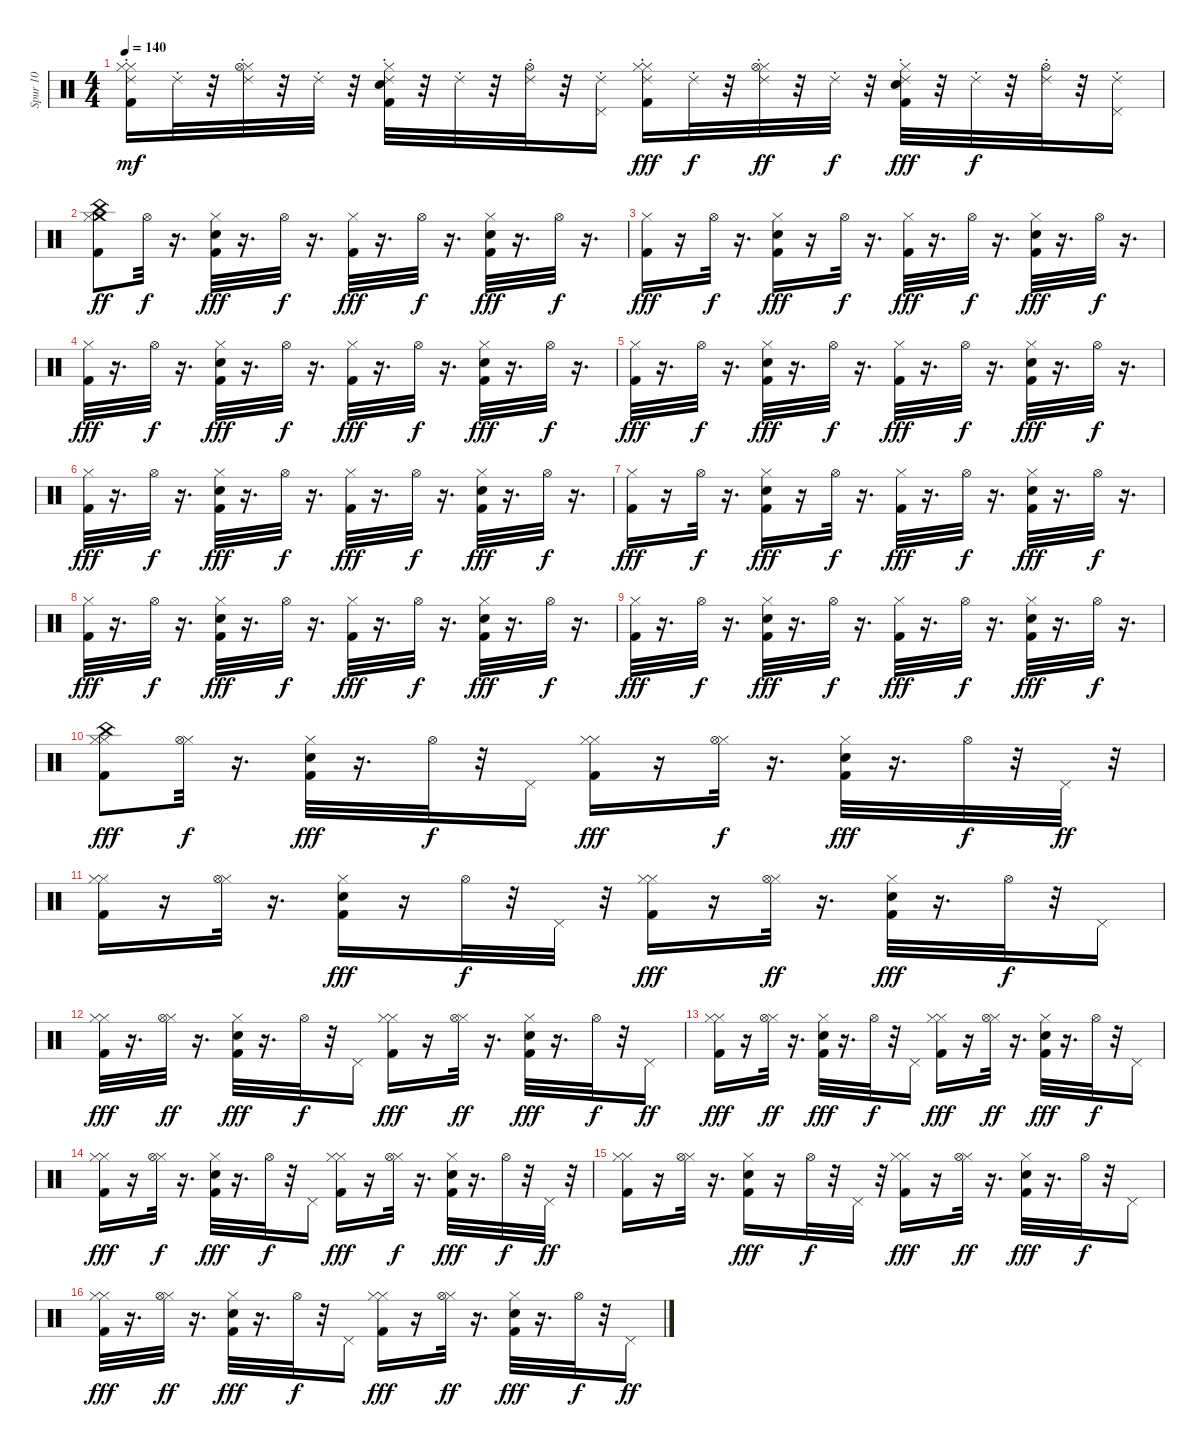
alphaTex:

\track ("Spur 10" "Spur 10") {instrument percussion}
\staff {score}
\articulation defaults
\ts (4 4)
\tempo 140
\clef neutral
\ks c
("Kick (hit) 2" "Hi-Hat (closed)" "Hi-Hat (closed)" "Ride (choke) 2").16{dy mf} "Ride (choke) 2".32 r.32 ("Hi-Hat (closed)" "Hi-Hat (open)" "Ride (choke) 2").32 r.32 "Ride (choke) 2".32 r.32 ("Kick (hit) 2" "Hi-Hat (closed)" "Ride (choke) 2" "Hand Clap (hit)").32 r.32 "Ride (choke) 2".32 r.32 ("Hi-Hat (open)" "Ride (choke) 2").32 r.32 ("Pedal Hi-Hat (hit)" "Ride (choke) 2").16 ("Kick (hit) 2" "Hi-Hat (closed)" "Hi-Hat (closed)" "Ride (choke) 2").16{dy fff} "Ride (choke) 2".32{dy f} r.32 ("Hi-Hat (closed)" "Hi-Hat (open)" "Ride (choke) 2").32{dy ff} r.32 "Ride (choke) 2".32{dy f} r.32 ("Kick (hit) 2" "Hi-Hat (closed)" "Ride (choke) 2" "Hand Clap (hit)").32{dy fff} r.32 "Ride (choke) 2".32{dy f} r.32 ("Hi-Hat (open)" "Ride (choke) 2").32 r.32 ("Pedal Hi-Hat (hit)" "Ride (choke) 2").16 |
("Kick (hit) 2" "China (hit)" "Crash medium (hit)" "Hi-Hat (closed)").8{dy ff} "Hi-Hat (open)".32{dy f} r.16{d} ("Kick (hit) 2" "Hi-Hat (closed)" "Hand Clap (hit)").32{dy fff} r.16{d} "Hi-Hat (open)".32{dy f} r.16{d} ("Kick (hit) 2" "Hi-Hat (closed)").32{dy fff} r.16{d} "Hi-Hat (open)".32{dy f} r.16{d} ("Kick (hit) 2" "Hi-Hat (closed)" "Hand Clap (hit)").32{dy fff} r.16{d} "Hi-Hat (open)".32{dy f} r.16{d} |
("Kick (hit) 2" "Hi-Hat (closed)").16{dy fff} r.16 "Hi-Hat (open)".32{dy f} r.16{d} ("Kick (hit) 2" "Hi-Hat (closed)" "Hand Clap (hit)").16{dy fff} r.16 "Hi-Hat (open)".32{dy f} r.16{d} ("Kick (hit) 2" "Hi-Hat (closed)").32{dy fff} r.16{d} "Hi-Hat (open)".32{dy f} r.16{d} ("Kick (hit) 2" "Hi-Hat (closed)" "Hand Clap (hit)").32{dy fff} r.16{d} "Hi-Hat (open)".32{dy f} r.16{d} |
("Kick (hit) 2" "Hi-Hat (closed)").32{dy fff} r.16{d} "Hi-Hat (open)".32{dy f} r.16{d} ("Kick (hit) 2" "Hi-Hat (closed)" "Hand Clap (hit)").32{dy fff} r.16{d} "Hi-Hat (open)".32{dy f} r.16{d} ("Kick (hit) 2" "Hi-Hat (closed)").32{dy fff} r.16{d} "Hi-Hat (open)".32{dy f} r.16{d} ("Kick (hit) 2" "Hi-Hat (closed)" "Hand Clap (hit)").32{dy fff} r.16{d} "Hi-Hat (open)".32{dy f} r.16{d} |
("Kick (hit) 2" "Hi-Hat (closed)").32{dy fff} r.16{d} "Hi-Hat (open)".32{dy f} r.16{d} ("Kick (hit) 2" "Hi-Hat (closed)" "Hand Clap (hit)").32{dy fff} r.16{d} "Hi-Hat (open)".32{dy f} r.16{d} ("Kick (hit) 2" "Hi-Hat (closed)").32{dy fff} r.16{d} "Hi-Hat (open)".32{dy f} r.16{d} ("Kick (hit) 2" "Hi-Hat (closed)" "Hand Clap (hit)").32{dy fff} r.16{d} "Hi-Hat (open)".32{dy f} r.16{d} |
("Kick (hit) 2" "Hi-Hat (closed)").32{dy fff} r.16{d} "Hi-Hat (open)".32{dy f} r.16{d} ("Kick (hit) 2" "Hi-Hat (closed)" "Hand Clap (hit)").32{dy fff} r.16{d} "Hi-Hat (open)".32{dy f} r.16{d} ("Kick (hit) 2" "Hi-Hat (closed)").32{dy fff} r.16{d} "Hi-Hat (open)".32{dy f} r.16{d} ("Kick (hit) 2" "Hi-Hat (closed)" "Hand Clap (hit)").32{dy fff} r.16{d} "Hi-Hat (open)".32{dy f} r.16{d} |
("Kick (hit) 2" "Hi-Hat (closed)").16{dy fff} r.16 "Hi-Hat (open)".32{dy f} r.16{d} ("Kick (hit) 2" "Hi-Hat (closed)" "Hand Clap (hit)").16{dy fff} r.16 "Hi-Hat (open)".32{dy f} r.16{d} ("Kick (hit) 2" "Hi-Hat (closed)").32{dy fff} r.16{d} "Hi-Hat (open)".32{dy f} r.16{d} ("Kick (hit) 2" "Hi-Hat (closed)" "Hand Clap (hit)").32{dy fff} r.16{d} "Hi-Hat (open)".32{dy f} r.16{d} |
("Kick (hit) 2" "Hi-Hat (closed)").32{dy fff} r.16{d} "Hi-Hat (open)".32{dy f} r.16{d} ("Kick (hit) 2" "Hi-Hat (closed)" "Hand Clap (hit)").32{dy fff} r.16{d} "Hi-Hat (open)".32{dy f} r.16{d} ("Kick (hit) 2" "Hi-Hat (closed)").32{dy fff} r.16{d} "Hi-Hat (open)".32{dy f} r.16{d} ("Kick (hit) 2" "Hi-Hat (closed)" "Hand Clap (hit)").32{dy fff} r.16{d} "Hi-Hat (open)".32{dy f} r.16{d} |
("Kick (hit) 2" "Hi-Hat (closed)").32{dy fff} r.16{d} "Hi-Hat (open)".32{dy f} r.16{d} ("Kick (hit) 2" "Hi-Hat (closed)" "Hand Clap (hit)").32{dy fff} r.16{d} "Hi-Hat (open)".32{dy f} r.16{d} ("Kick (hit) 2" "Hi-Hat (closed)").32{dy fff} r.16{d} "Hi-Hat (open)".32{dy f} r.16{d} ("Kick (hit) 2" "Hi-Hat (closed)" "Hand Clap (hit)").32{dy fff} r.16{d} "Hi-Hat (open)".32{dy f} r.16{d} |
("Kick (hit) 2" "Hi-Hat (closed)" "China (hit)" "Hi-Hat (closed)").8{dy fff} ("Hi-Hat (closed)" "Hi-Hat (open)").32{dy f} r.16{d} ("Kick (hit) 2" "Hi-Hat (closed)" "Hand Clap (hit)").32{dy fff} r.16{d} "Hi-Hat (open)".32{dy f} r.32 "Pedal Hi-Hat (hit)".16 ("Kick (hit) 2" "Hi-Hat (closed)" "Hi-Hat (closed)").16{dy fff} r.16 ("Hi-Hat (closed)" "Hi-Hat (open)").32{dy f} r.16{d} ("Kick (hit) 2" "Hi-Hat (closed)" "Hand Clap (hit)").32{dy fff} r.16{d} "Hi-Hat (open)".32{dy f} r.32 "Pedal Hi-Hat (hit)".32{dy ff} r.32 |
("Kick (hit) 2" "Hi-Hat (closed)" "Hi-Hat (closed)").16 r.16 ("Hi-Hat (closed)" "Hi-Hat (open)").32 r.16{d} ("Kick (hit) 2" "Hi-Hat (closed)" "Hand Clap (hit)").16{dy fff} r.16 "Hi-Hat (open)".32{dy f} r.32 "Pedal Hi-Hat (hit)".32 r.32 ("Kick (hit) 2" "Hi-Hat (closed)" "Hi-Hat (closed)").16{dy fff} r.16 ("Hi-Hat (closed)" "Hi-Hat (open)").32{dy ff} r.16{d} ("Kick (hit) 2" "Hi-Hat (closed)" "Hand Clap (hit)").32{dy fff} r.16{d} "Hi-Hat (open)".32{dy f} r.32 "Pedal Hi-Hat (hit)".16 |
("Kick (hit) 2" "Hi-Hat (closed)" "Hi-Hat (closed)").32{dy fff} r.16{d} ("Hi-Hat (closed)" "Hi-Hat (open)").32{dy ff} r.16{d} ("Kick (hit) 2" "Hi-Hat (closed)" "Hand Clap (hit)").32{dy fff} r.16{d} "Hi-Hat (open)".32{dy f} r.32 "Pedal Hi-Hat (hit)".16 ("Kick (hit) 2" "Hi-Hat (closed)" "Hi-Hat (closed)").16{dy fff} r.16 ("Hi-Hat (closed)" "Hi-Hat (open)").32{dy ff} r.16{d} ("Kick (hit) 2" "Hi-Hat (closed)" "Hand Clap (hit)").32{dy fff} r.16{d} "Hi-Hat (open)".32{dy f} r.32 "Pedal Hi-Hat (hit)".16{dy ff} |
("Kick (hit) 2" "Hi-Hat (closed)" "Hi-Hat (closed)").16{dy fff} r.16 ("Hi-Hat (closed)" "Hi-Hat (open)").32{dy ff} r.16{d} ("Kick (hit) 2" "Hi-Hat (closed)" "Hand Clap (hit)").32{dy fff} r.16{d} "Hi-Hat (open)".32{dy f} r.32 "Pedal Hi-Hat (hit)".16 ("Kick (hit) 2" "Hi-Hat (closed)" "Hi-Hat (closed)").16{dy fff} r.16 ("Hi-Hat (closed)" "Hi-Hat (open)").32{dy ff} r.16{d} ("Kick (hit) 2" "Hi-Hat (closed)" "Hand Clap (hit)").32{dy fff} r.16{d} "Hi-Hat (open)".32{dy f} r.32 "Pedal Hi-Hat (hit)".16 |
("Kick (hit) 2" "Hi-Hat (closed)" "Hi-Hat (closed)").16{dy fff} r.16 ("Hi-Hat (closed)" "Hi-Hat (open)").32{dy f} r.16{d} ("Kick (hit) 2" "Hi-Hat (closed)" "Hand Clap (hit)").32{dy fff} r.16{d} "Hi-Hat (open)".32{dy f} r.32 "Pedal Hi-Hat (hit)".16 ("Kick (hit) 2" "Hi-Hat (closed)" "Hi-Hat (closed)").16{dy fff} r.16 ("Hi-Hat (closed)" "Hi-Hat (open)").32{dy f} r.16{d} ("Kick (hit) 2" "Hi-Hat (closed)" "Hand Clap (hit)").32{dy fff} r.16{d} "Hi-Hat (open)".32{dy f} r.32 "Pedal Hi-Hat (hit)".32{dy ff} r.32 |
("Kick (hit) 2" "Hi-Hat (closed)" "Hi-Hat (closed)").16 r.16 ("Hi-Hat (closed)" "Hi-Hat (open)").32 r.16{d} ("Kick (hit) 2" "Hi-Hat (closed)" "Hand Clap (hit)").16{dy fff} r.16 "Hi-Hat (open)".32{dy f} r.32 "Pedal Hi-Hat (hit)".32 r.32 ("Kick (hit) 2" "Hi-Hat (closed)" "Hi-Hat (closed)").16{dy fff} r.16 ("Hi-Hat (closed)" "Hi-Hat (open)").32{dy ff} r.16{d} ("Kick (hit) 2" "Hi-Hat (closed)" "Hand Clap (hit)").32{dy fff} r.16{d} "Hi-Hat (open)".32{dy f} r.32 "Pedal Hi-Hat (hit)".16 |
("Kick (hit) 2" "Hi-Hat (closed)" "Hi-Hat (closed)").32{dy fff} r.16{d} ("Hi-Hat (closed)" "Hi-Hat (open)").32{dy ff} r.16{d} ("Kick (hit) 2" "Hi-Hat (closed)" "Hand Clap (hit)").32{dy fff} r.16{d} "Hi-Hat (open)".32{dy f} r.32 "Pedal Hi-Hat (hit)".16 ("Kick (hit) 2" "Hi-Hat (closed)" "Hi-Hat (closed)").16{dy fff} r.16 ("Hi-Hat (closed)" "Hi-Hat (open)").32{dy ff} r.16{d} ("Kick (hit) 2" "Hi-Hat (closed)" "Hand Clap (hit)").32{dy fff} r.16{d} "Hi-Hat (open)".32{dy f} r.32 "Pedal Hi-Hat (hit)".16{dy ff}
